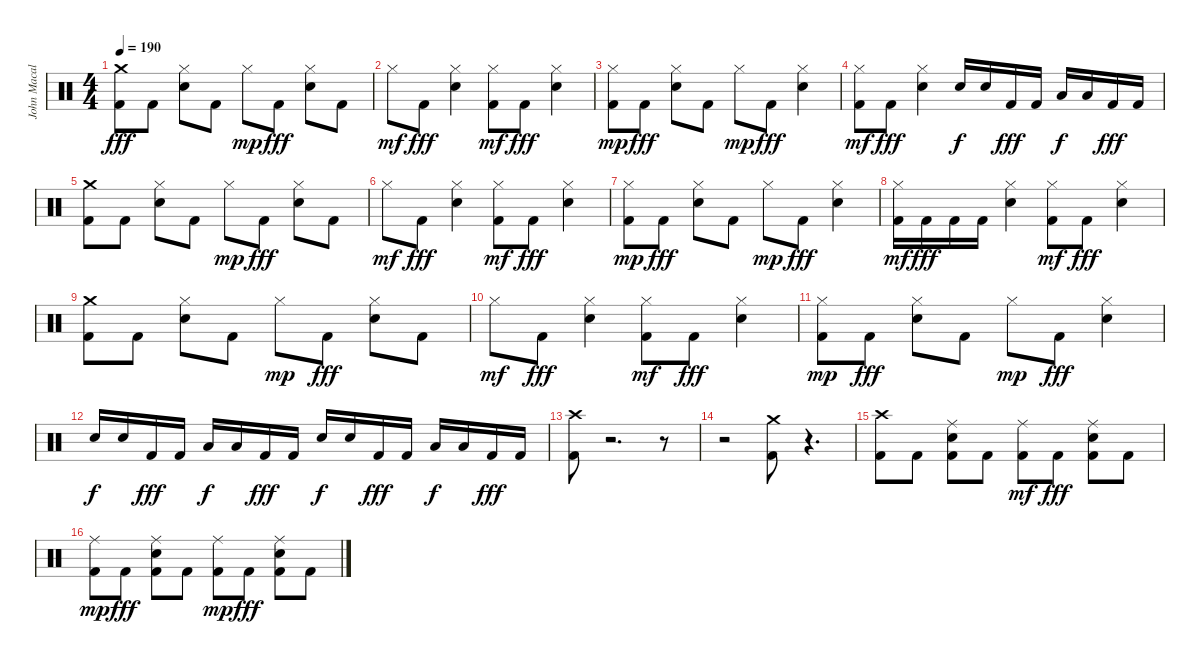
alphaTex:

\track ("John Macaluso drums" "John Macal") {instrument percussion}
\staff {score}
\articulation defaults
\ts (4 4)
\tempo 190
\clef neutral
\ks c
("Kick (hit) 2" "Crash medium (hit)").8{dy fff} "Kick (hit) 2".8 ("Snare (hit) 2" "Hi-Hat (closed)").8 "Kick (hit) 2".8 "Hi-Hat (closed)".8{dy mp} "Kick (hit) 2".8{dy fff} ("Snare (hit) 2" "Hi-Hat (closed)").8 "Kick (hit) 2".8 |
"Hi-Hat (closed)".8{dy mf} "Kick (hit) 2".8{dy fff} ("Snare (hit) 2" "Hi-Hat (closed)").4 ("Kick (hit) 2" "Hi-Hat (closed)").8{dy mf} "Kick (hit) 2".8{dy fff} ("Snare (hit) 2" "Hi-Hat (closed)").4 |
("Kick (hit) 2" "Hi-Hat (closed)").8{dy mp} "Kick (hit) 2".8{dy fff} ("Snare (hit) 2" "Hi-Hat (closed)").8 "Kick (hit) 2".8 "Hi-Hat (closed)".8{dy mp} "Kick (hit) 2".8{dy fff} ("Snare (hit) 2" "Hi-Hat (closed)").4 |
("Kick (hit) 2" "Hi-Hat (closed)").8{dy mf} "Kick (hit) 2".8{dy fff} ("Snare (hit) 2" "Hi-Hat (closed)").4 "Electric Snare (hit)".16{dy f} "Electric Snare (hit)".16 "Kick (hit) 2".16{dy fff} "Kick (hit) 2".16 "Low Tom (hit)".16{dy f} "Low Tom (hit)".16 "Kick (hit) 2".16{dy fff} "Kick (hit) 2".16 |
("Kick (hit) 2" "Crash medium (hit)").8 "Kick (hit) 2".8 ("Snare (hit) 2" "Hi-Hat (closed)").8 "Kick (hit) 2".8 "Hi-Hat (closed)".8{dy mp} "Kick (hit) 2".8{dy fff} ("Snare (hit) 2" "Hi-Hat (closed)").8 "Kick (hit) 2".8 |
"Hi-Hat (closed)".8{dy mf} "Kick (hit) 2".8{dy fff} ("Snare (hit) 2" "Hi-Hat (closed)").4 ("Kick (hit) 2" "Hi-Hat (closed)").8{dy mf} "Kick (hit) 2".8{dy fff} ("Snare (hit) 2" "Hi-Hat (closed)").4 |
("Kick (hit) 2" "Hi-Hat (closed)").8{dy mp} "Kick (hit) 2".8{dy fff} ("Snare (hit) 2" "Hi-Hat (closed)").8 "Kick (hit) 2".8 "Hi-Hat (closed)".8{dy mp} "Kick (hit) 2".8{dy fff} ("Snare (hit) 2" "Hi-Hat (closed)").4 |
("Kick (hit) 2" "Hi-Hat (closed)").16{dy mf} "Kick (hit) 2".16{dy fff} "Kick (hit) 2".16 "Kick (hit) 2".16 ("Snare (hit) 2" "Hi-Hat (closed)").4 ("Kick (hit) 2" "Hi-Hat (closed)").8{dy mf} "Kick (hit) 2".8{dy fff} ("Snare (hit) 2" "Hi-Hat (closed)").4 |
("Kick (hit) 2" "Crash medium (hit)").8 "Kick (hit) 2".8 ("Snare (hit) 2" "Hi-Hat (closed)").8 "Kick (hit) 2".8 "Hi-Hat (closed)".8{dy mp} "Kick (hit) 2".8{dy fff} ("Snare (hit) 2" "Hi-Hat (closed)").8 "Kick (hit) 2".8 |
"Hi-Hat (closed)".8{dy mf} "Kick (hit) 2".8{dy fff} ("Snare (hit) 2" "Hi-Hat (closed)").4 ("Kick (hit) 2" "Hi-Hat (closed)").8{dy mf} "Kick (hit) 2".8{dy fff} ("Snare (hit) 2" "Hi-Hat (closed)").4 |
("Kick (hit) 2" "Hi-Hat (closed)").8{dy mp} "Kick (hit) 2".8{dy fff} ("Snare (hit) 2" "Hi-Hat (closed)").8 "Kick (hit) 2".8 "Hi-Hat (closed)".8{dy mp} "Kick (hit) 2".8{dy fff} ("Snare (hit) 2" "Hi-Hat (closed)").4 |
"Electric Snare (hit)".16{dy f} "Electric Snare (hit)".16 "Kick (hit) 2".16{dy fff} "Kick (hit) 2".16 "Low Tom (hit)".16{dy f} "Low Tom (hit)".16 "Kick (hit) 2".16{dy fff} "Kick (hit) 2".16 "Electric Snare (hit)".16{dy f} "Electric Snare (hit)".16 "Kick (hit) 2".16{dy fff} "Kick (hit) 2".16 "Low Tom (hit)".16{dy f} "Low Tom (hit)".16 "Kick (hit) 2".16{dy fff} "Kick (hit) 2".16 |
("Kick (hit) 2" "Crash high (hit)").8 r.2{d} r.8 |
r.2 ("Kick (hit) 2" "Crash medium (hit)").8 r.4{d} |
("Kick (hit) 2" "Crash high (hit)").8 "Kick (hit) 2".8 ("Kick (hit) 2" "Snare (hit) 2" "Ride (middle)").8 "Kick (hit) 2".8 ("Kick (hit) 2" "Ride (middle)").8{dy mf} "Kick (hit) 2".8{dy fff} ("Kick (hit) 2" "Snare (hit) 2" "Ride (middle)").8 "Kick (hit) 2".8 |
("Kick (hit) 2" "Ride (middle)").8{dy mp} "Kick (hit) 2".8{dy fff} ("Kick (hit) 2" "Snare (hit) 2" "Ride (middle)").8 "Kick (hit) 2".8 ("Kick (hit) 2" "Ride (middle)").8{dy mp} "Kick (hit) 2".8{dy fff} ("Kick (hit) 2" "Snare (hit) 2" "Ride (middle)").8 "Kick (hit) 2".8
